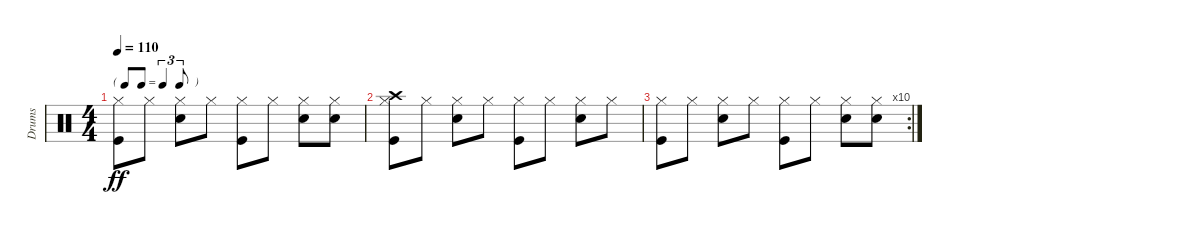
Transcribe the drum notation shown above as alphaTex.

\track ("Drums" "Drums") {instrument percussion}
\staff {score}
\articulation defaults
\ts (4 4)
\tf triplet8th
\tempo 110
\clef neutral
\ks c
("Hi-Hat (closed)" "Kick (hit)").8{dy ff} "Hi-Hat (closed)".8 ("Hi-Hat (closed)" "Snare (hit) 2").8 "Hi-Hat (closed)".8 ("Hi-Hat (closed)" "Kick (hit)").8 "Hi-Hat (closed)".8 ("Hi-Hat (closed)" "Snare (hit) 2").8 ("Hi-Hat (closed)" "Snare (hit) 2").8 |
("Hi-Hat (closed)" "Kick (hit)" "Crash high (hit)").8 "Hi-Hat (closed)".8 ("Hi-Hat (closed)" "Snare (hit) 2").8 "Hi-Hat (closed)".8 ("Hi-Hat (closed)" "Kick (hit)").8 "Hi-Hat (closed)".8 ("Hi-Hat (closed)" "Snare (hit) 2").8 "Hi-Hat (closed)".8 |
\rc 10
("Hi-Hat (closed)" "Kick (hit)").8 "Hi-Hat (closed)".8 ("Hi-Hat (closed)" "Snare (hit) 2").8 "Hi-Hat (closed)".8 ("Hi-Hat (closed)" "Kick (hit)").8 "Hi-Hat (closed)".8 ("Hi-Hat (closed)" "Snare (hit) 2").8 ("Hi-Hat (closed)" "Snare (hit) 2").8
